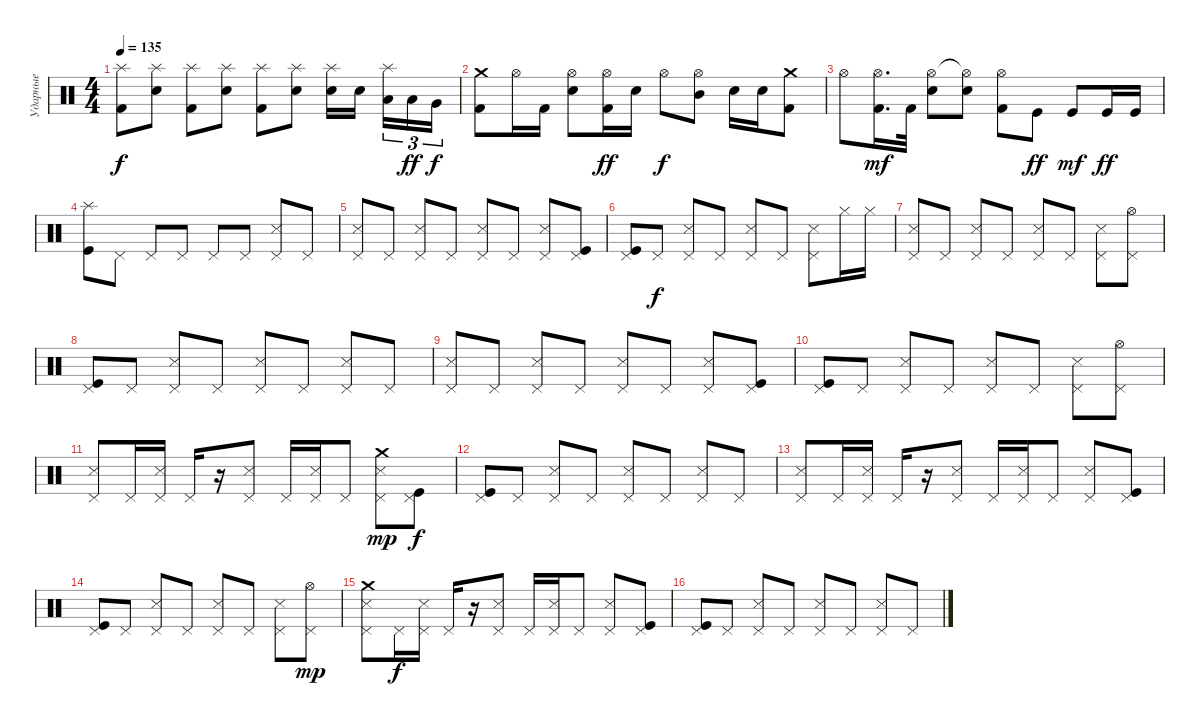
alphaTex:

\track ("Ударные" "Ударные") {instrument percussion}
\staff {score}
\articulation defaults
\ts (4 4)
\tempo 135
\clef neutral
\ks c
("Splash (hit)" "Kick (hit) 2").8{dy f} ("Splash (hit)" "Electric Snare (hit)").8 ("Splash (hit)" "Kick (hit) 2").8 ("Splash (hit)" "Electric Snare (hit)").8 ("Splash (hit)" "Kick (hit) 2").8 ("Splash (hit)" "Electric Snare (hit)").8 ("Splash (hit)" "Electric Snare (hit)").16 "Electric Snare (hit)".16{beam splitsecondary} ("Splash (hit)" "Low Tom (hit)").16{tu (3 2)} "Low Tom (hit)".16{tu (3 2) dy ff} "Very Low Tom (hit)".16{tu (3 2) dy f} |
("Crash medium (hit)" "Kick (hit) 2").8 "Hi-Hat (open)".16 "Kick (hit) 2".16 ("Hi-Hat (open)" "Electric Snare (hit)").8 ("Hi-Hat (open)" "Kick (hit) 2").16{dy ff} "Electric Snare (hit)".16 "Hi-Hat (open)".8{dy f} ("Hi-Hat (open)" "Mid Tom (hit)").8 "Electric Snare (hit)".16 "Electric Snare (hit)".16 ("Crash medium (hit)" "Kick (hit) 2").8 |
"Hi-Hat (open)".8 ("Hi-Hat (open)" "Kick (hit) 2").16{d dy mf} "Kick (hit) 2".32 ("Hi-Hat (open)" "Electric Snare (hit)").8 ("Hi-Hat (open)"{t} "Electric Snare (hit)").8 ("Hi-Hat (open)" "Kick (hit) 2").8 "Kick (hit)".8{dy ff} "Kick (hit)".8{dy mf} "Kick (hit)".16{dy ff} "Kick (hit)".16 |
("Splash (hit)" "Kick (hit)").8 "Pedal Hi-Hat (hit)".8 "Pedal Hi-Hat (hit)".8 "Pedal Hi-Hat (hit)".8 "Pedal Hi-Hat (hit)".8 "Pedal Hi-Hat (hit)".8 ("Metronome (hit)" "Pedal Hi-Hat (hit)").8 "Pedal Hi-Hat (hit)".8 |
("Metronome (hit)" "Pedal Hi-Hat (hit)").8 "Pedal Hi-Hat (hit)".8 ("Metronome (hit)" "Pedal Hi-Hat (hit)").8 "Pedal Hi-Hat (hit)".8 ("Metronome (hit)" "Pedal Hi-Hat (hit)").8 "Pedal Hi-Hat (hit)".8 ("Metronome (hit)" "Pedal Hi-Hat (hit)").8 ("Pedal Hi-Hat (hit)" "Kick (hit)").8 |
("Pedal Hi-Hat (hit)" "Kick (hit)").8 "Pedal Hi-Hat (hit)".8{dy f} ("Metronome (hit)" "Pedal Hi-Hat (hit)").8 "Pedal Hi-Hat (hit)".8 ("Metronome (hit)" "Pedal Hi-Hat (hit)").8 "Pedal Hi-Hat (hit)".8 ("Metronome (hit)" "Pedal Hi-Hat (hit)").8 "Hi-Hat (closed)".16 "Hi-Hat (closed)".16 |
("Metronome (hit)" "Pedal Hi-Hat (hit)").8 "Pedal Hi-Hat (hit)".8 ("Metronome (hit)" "Pedal Hi-Hat (hit)").8 "Pedal Hi-Hat (hit)".8 ("Metronome (hit)" "Pedal Hi-Hat (hit)").8 "Pedal Hi-Hat (hit)".8 ("Metronome (hit)" "Pedal Hi-Hat (hit)").8 ("Pedal Hi-Hat (hit)" "Hi-Hat (open)").8 |
("Pedal Hi-Hat (hit)" "Kick (hit)").8 "Pedal Hi-Hat (hit)".8 ("Metronome (hit)" "Pedal Hi-Hat (hit)").8 "Pedal Hi-Hat (hit)".8 ("Metronome (hit)" "Pedal Hi-Hat (hit)").8 "Pedal Hi-Hat (hit)".8 ("Metronome (hit)" "Pedal Hi-Hat (hit)").8 "Pedal Hi-Hat (hit)".8 |
("Metronome (hit)" "Pedal Hi-Hat (hit)").8 "Pedal Hi-Hat (hit)".8 ("Metronome (hit)" "Pedal Hi-Hat (hit)").8 "Pedal Hi-Hat (hit)".8 ("Metronome (hit)" "Pedal Hi-Hat (hit)").8 "Pedal Hi-Hat (hit)".8 ("Metronome (hit)" "Pedal Hi-Hat (hit)").8 ("Pedal Hi-Hat (hit)" "Kick (hit)").8 |
("Pedal Hi-Hat (hit)" "Kick (hit)").8 "Pedal Hi-Hat (hit)".8 ("Metronome (hit)" "Pedal Hi-Hat (hit)").8 "Pedal Hi-Hat (hit)".8 ("Metronome (hit)" "Pedal Hi-Hat (hit)").8 "Pedal Hi-Hat (hit)".8 ("Metronome (hit)" "Pedal Hi-Hat (hit)").8 ("Pedal Hi-Hat (hit)" "Hi-Hat (open)").8 |
("Metronome (hit)" "Pedal Hi-Hat (hit)").8 "Pedal Hi-Hat (hit)".16 ("Metronome (hit)" "Pedal Hi-Hat (hit)").16 "Pedal Hi-Hat (hit)".16 r.16 ("Metronome (hit)" "Pedal Hi-Hat (hit)").8 "Pedal Hi-Hat (hit)".16 ("Metronome (hit)" "Pedal Hi-Hat (hit)").16 "Pedal Hi-Hat (hit)".8 ("Metronome (hit)" "Pedal Hi-Hat (hit)" "Crash medium (hit)").8{dy mp} ("Pedal Hi-Hat (hit)" "Kick (hit)").8{dy f} |
("Pedal Hi-Hat (hit)" "Kick (hit)").8 "Pedal Hi-Hat (hit)".8 ("Metronome (hit)" "Pedal Hi-Hat (hit)").8 "Pedal Hi-Hat (hit)".8 ("Metronome (hit)" "Pedal Hi-Hat (hit)").8 "Pedal Hi-Hat (hit)".8 ("Metronome (hit)" "Pedal Hi-Hat (hit)").8 "Pedal Hi-Hat (hit)".8 |
("Metronome (hit)" "Pedal Hi-Hat (hit)").8 "Pedal Hi-Hat (hit)".16 ("Metronome (hit)" "Pedal Hi-Hat (hit)").16 "Pedal Hi-Hat (hit)".16 r.16 ("Metronome (hit)" "Pedal Hi-Hat (hit)").8 "Pedal Hi-Hat (hit)".16 ("Metronome (hit)" "Pedal Hi-Hat (hit)").16 "Pedal Hi-Hat (hit)".8 ("Metronome (hit)" "Pedal Hi-Hat (hit)").8 ("Pedal Hi-Hat (hit)" "Kick (hit)").8 |
("Pedal Hi-Hat (hit)" "Kick (hit)").8 "Pedal Hi-Hat (hit)".8 ("Metronome (hit)" "Pedal Hi-Hat (hit)").8 "Pedal Hi-Hat (hit)".8 ("Metronome (hit)" "Pedal Hi-Hat (hit)").8 "Pedal Hi-Hat (hit)".8 ("Metronome (hit)" "Pedal Hi-Hat (hit)").8 ("Pedal Hi-Hat (hit)" "Hi-Hat (open)").8{dy mp} |
("Metronome (hit)" "Pedal Hi-Hat (hit)" "Crash medium (hit)").8 "Pedal Hi-Hat (hit)".16{dy f} ("Metronome (hit)" "Pedal Hi-Hat (hit)").16 "Pedal Hi-Hat (hit)".16 r.16 ("Metronome (hit)" "Pedal Hi-Hat (hit)").8 "Pedal Hi-Hat (hit)".16 ("Metronome (hit)" "Pedal Hi-Hat (hit)").16 "Pedal Hi-Hat (hit)".8 ("Metronome (hit)" "Pedal Hi-Hat (hit)").8 ("Pedal Hi-Hat (hit)" "Kick (hit)").8 |
("Pedal Hi-Hat (hit)" "Kick (hit)").8 "Pedal Hi-Hat (hit)".8 ("Metronome (hit)" "Pedal Hi-Hat (hit)").8 "Pedal Hi-Hat (hit)".8 ("Metronome (hit)" "Pedal Hi-Hat (hit)").8 "Pedal Hi-Hat (hit)".8 ("Metronome (hit)" "Pedal Hi-Hat (hit)").8 "Pedal Hi-Hat (hit)".8
